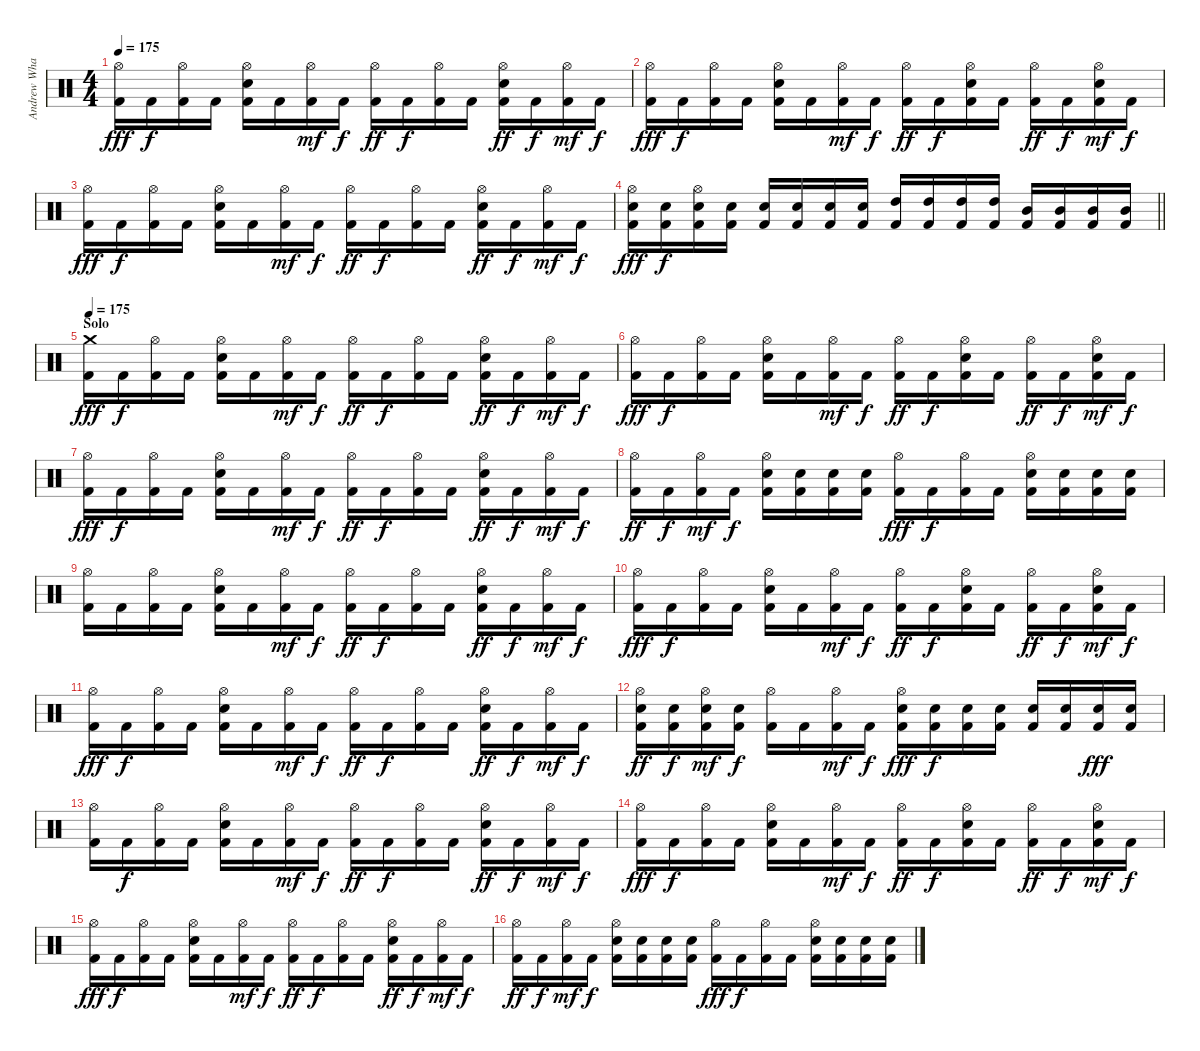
\track ("Andrew Whale" "Andrew Wha") {instrument percussion}
\staff {score}
\articulation defaults
\ts (4 4)
\tempo 175
\clef neutral
\ks c
("Hi-Hat (open)" "Kick (hit) 2").16{dy fff} "Kick (hit) 2".16{dy f} ("Hi-Hat (open)" "Kick (hit) 2").16 "Kick (hit) 2".16 ("Hi-Hat (open)" "Snare (hit) 2" "Kick (hit) 2").16 "Kick (hit) 2".16 ("Hi-Hat (open)" "Kick (hit) 2").16{dy mf} "Kick (hit) 2".16{dy f} ("Hi-Hat (open)" "Kick (hit) 2").16{dy ff} "Kick (hit) 2".16{dy f} ("Hi-Hat (open)" "Kick (hit) 2").16 "Kick (hit) 2".16 ("Hi-Hat (open)" "Snare (hit) 2" "Kick (hit) 2").16{dy ff} "Kick (hit) 2".16{dy f} ("Hi-Hat (open)" "Kick (hit) 2").16{dy mf} "Kick (hit) 2".16{dy f} |
("Hi-Hat (open)" "Kick (hit) 2").16{dy fff} "Kick (hit) 2".16{dy f} ("Hi-Hat (open)" "Kick (hit) 2").16 "Kick (hit) 2".16 ("Hi-Hat (open)" "Snare (hit) 2" "Kick (hit) 2").16 "Kick (hit) 2".16 ("Hi-Hat (open)" "Kick (hit) 2").16{dy mf} "Kick (hit) 2".16{dy f} ("Hi-Hat (open)" "Kick (hit) 2").16{dy ff} "Kick (hit) 2".16{dy f} ("Hi-Hat (open)" "Snare (hit) 2" "Kick (hit) 2").16 "Kick (hit) 2".16 ("Hi-Hat (open)" "Kick (hit) 2").16{dy ff} "Kick (hit) 2".16{dy f} ("Hi-Hat (open)" "Snare (hit) 2" "Kick (hit) 2").16{dy mf} "Kick (hit) 2".16{dy f} |
("Hi-Hat (open)" "Kick (hit) 2").16{dy fff} "Kick (hit) 2".16{dy f} ("Hi-Hat (open)" "Kick (hit) 2").16 "Kick (hit) 2".16 ("Hi-Hat (open)" "Snare (hit) 2" "Kick (hit) 2").16 "Kick (hit) 2".16 ("Hi-Hat (open)" "Kick (hit) 2").16{dy mf} "Kick (hit) 2".16{dy f} ("Hi-Hat (open)" "Kick (hit) 2").16{dy ff} "Kick (hit) 2".16{dy f} ("Hi-Hat (open)" "Kick (hit) 2").16 "Kick (hit) 2".16 ("Hi-Hat (open)" "Snare (hit) 2" "Kick (hit) 2").16{dy ff} "Kick (hit) 2".16{dy f} ("Hi-Hat (open)" "Kick (hit) 2").16{dy mf} "Kick (hit) 2".16{dy f} |
\barLineRight lightlight
("Hi-Hat (open)" "Snare (hit) 2" "Kick (hit) 2").16{dy fff} ("Snare (hit) 2" "Kick (hit) 2").16{dy f} ("Hi-Hat (open)" "Snare (hit) 2" "Kick (hit) 2").16 ("Snare (hit) 2" "Kick (hit) 2").16 ("Snare (hit) 2" "Kick (hit) 2").16 ("Snare (hit) 2" "Kick (hit) 2").16 ("Snare (hit) 2" "Kick (hit) 2").16 ("Snare (hit) 2" "Kick (hit) 2").16 ("High Tom (hit)" "Kick (hit) 2").16 ("High Tom (hit)" "Kick (hit) 2").16 ("High Tom (hit)" "Kick (hit) 2").16 ("High Tom (hit)" "Kick (hit) 2").16 ("Mid Tom (hit)" "Kick (hit) 2").16 ("Mid Tom (hit)" "Kick (hit) 2").16 ("Mid Tom (hit)" "Kick (hit) 2").16 ("Mid Tom (hit)" "Kick (hit) 2").16 |
\section ("" "Solo")
\tempo 175
("Crash medium (hit)" "Kick (hit) 2").16{dy fff} "Kick (hit) 2".16{dy f} ("Hi-Hat (open)" "Kick (hit) 2").16 "Kick (hit) 2".16 ("Hi-Hat (open)" "Snare (hit) 2" "Kick (hit) 2").16 "Kick (hit) 2".16 ("Hi-Hat (open)" "Kick (hit) 2").16{dy mf} "Kick (hit) 2".16{dy f} ("Hi-Hat (open)" "Kick (hit) 2").16{dy ff} "Kick (hit) 2".16{dy f} ("Hi-Hat (open)" "Kick (hit) 2").16 "Kick (hit) 2".16 ("Hi-Hat (open)" "Snare (hit) 2" "Kick (hit) 2").16{dy ff} "Kick (hit) 2".16{dy f} ("Hi-Hat (open)" "Kick (hit) 2").16{dy mf} "Kick (hit) 2".16{dy f} |
("Hi-Hat (open)" "Kick (hit) 2").16{dy fff} "Kick (hit) 2".16{dy f} ("Hi-Hat (open)" "Kick (hit) 2").16 "Kick (hit) 2".16 ("Hi-Hat (open)" "Snare (hit) 2" "Kick (hit) 2").16 "Kick (hit) 2".16 ("Hi-Hat (open)" "Kick (hit) 2").16{dy mf} "Kick (hit) 2".16{dy f} ("Hi-Hat (open)" "Kick (hit) 2").16{dy ff} "Kick (hit) 2".16{dy f} ("Hi-Hat (open)" "Snare (hit) 2" "Kick (hit) 2").16 "Kick (hit) 2".16 ("Hi-Hat (open)" "Kick (hit) 2").16{dy ff} "Kick (hit) 2".16{dy f} ("Hi-Hat (open)" "Snare (hit) 2" "Kick (hit) 2").16{dy mf} "Kick (hit) 2".16{dy f} |
("Hi-Hat (open)" "Kick (hit) 2").16{dy fff} "Kick (hit) 2".16{dy f} ("Hi-Hat (open)" "Kick (hit) 2").16 "Kick (hit) 2".16 ("Hi-Hat (open)" "Snare (hit) 2" "Kick (hit) 2").16 "Kick (hit) 2".16 ("Hi-Hat (open)" "Kick (hit) 2").16{dy mf} "Kick (hit) 2".16{dy f} ("Hi-Hat (open)" "Kick (hit) 2").16{dy ff} "Kick (hit) 2".16{dy f} ("Hi-Hat (open)" "Kick (hit) 2").16 "Kick (hit) 2".16 ("Hi-Hat (open)" "Snare (hit) 2" "Kick (hit) 2").16{dy ff} "Kick (hit) 2".16{dy f} ("Hi-Hat (open)" "Kick (hit) 2").16{dy mf} "Kick (hit) 2".16{dy f} |
("Hi-Hat (open)" "Kick (hit) 2").16{dy ff} "Kick (hit) 2".16{dy f} ("Hi-Hat (open)" "Kick (hit) 2").16{dy mf} "Kick (hit) 2".16{dy f} ("Hi-Hat (open)" "Snare (hit) 2" "Kick (hit) 2").16 ("Snare (hit) 2" "Kick (hit) 2").16 ("Snare (hit) 2" "Kick (hit) 2").16 ("Snare (hit) 2" "Kick (hit) 2").16 ("Hi-Hat (open)" "Kick (hit) 2").16{dy fff} "Kick (hit) 2".16{dy f} ("Hi-Hat (open)" "Kick (hit) 2").16 "Kick (hit) 2".16 ("Hi-Hat (open)" "Snare (hit) 2" "Kick (hit) 2").16 ("Snare (hit) 2" "Kick (hit) 2").16 ("Snare (hit) 2" "Kick (hit) 2").16 ("Snare (hit) 2" "Kick (hit) 2").16 |
("Hi-Hat (open)" "Kick (hit) 2").16 "Kick (hit) 2".16 ("Hi-Hat (open)" "Kick (hit) 2").16 "Kick (hit) 2".16 ("Hi-Hat (open)" "Snare (hit) 2" "Kick (hit) 2").16 "Kick (hit) 2".16 ("Hi-Hat (open)" "Kick (hit) 2").16{dy mf} "Kick (hit) 2".16{dy f} ("Hi-Hat (open)" "Kick (hit) 2").16{dy ff} "Kick (hit) 2".16{dy f} ("Hi-Hat (open)" "Kick (hit) 2").16 "Kick (hit) 2".16 ("Hi-Hat (open)" "Snare (hit) 2" "Kick (hit) 2").16{dy ff} "Kick (hit) 2".16{dy f} ("Hi-Hat (open)" "Kick (hit) 2").16{dy mf} "Kick (hit) 2".16{dy f} |
("Hi-Hat (open)" "Kick (hit) 2").16{dy fff} "Kick (hit) 2".16{dy f} ("Hi-Hat (open)" "Kick (hit) 2").16 "Kick (hit) 2".16 ("Hi-Hat (open)" "Snare (hit) 2" "Kick (hit) 2").16 "Kick (hit) 2".16 ("Hi-Hat (open)" "Kick (hit) 2").16{dy mf} "Kick (hit) 2".16{dy f} ("Hi-Hat (open)" "Kick (hit) 2").16{dy ff} "Kick (hit) 2".16{dy f} ("Hi-Hat (open)" "Snare (hit) 2" "Kick (hit) 2").16 "Kick (hit) 2".16 ("Hi-Hat (open)" "Kick (hit) 2").16{dy ff} "Kick (hit) 2".16{dy f} ("Hi-Hat (open)" "Snare (hit) 2" "Kick (hit) 2").16{dy mf} "Kick (hit) 2".16{dy f} |
("Hi-Hat (open)" "Kick (hit) 2").16{dy fff} "Kick (hit) 2".16{dy f} ("Hi-Hat (open)" "Kick (hit) 2").16 "Kick (hit) 2".16 ("Hi-Hat (open)" "Snare (hit) 2" "Kick (hit) 2").16 "Kick (hit) 2".16 ("Hi-Hat (open)" "Kick (hit) 2").16{dy mf} "Kick (hit) 2".16{dy f} ("Hi-Hat (open)" "Kick (hit) 2").16{dy ff} "Kick (hit) 2".16{dy f} ("Hi-Hat (open)" "Kick (hit) 2").16 "Kick (hit) 2".16 ("Hi-Hat (open)" "Snare (hit) 2" "Kick (hit) 2").16{dy ff} "Kick (hit) 2".16{dy f} ("Hi-Hat (open)" "Kick (hit) 2").16{dy mf} "Kick (hit) 2".16{dy f} |
("Hi-Hat (open)" "Snare (hit) 2" "Kick (hit) 2").16{dy ff} ("Snare (hit) 2" "Kick (hit) 2").16{dy f} ("Hi-Hat (open)" "Snare (hit) 2" "Kick (hit) 2").16{dy mf} ("Snare (hit) 2" "Kick (hit) 2").16{dy f} ("Hi-Hat (open)" "Kick (hit) 2").16 "Kick (hit) 2".16 ("Hi-Hat (open)" "Kick (hit) 2").16{dy mf} "Kick (hit) 2".16{dy f} ("Hi-Hat (open)" "Snare (hit) 2" "Kick (hit) 2").16{dy fff} ("Snare (hit) 2" "Kick (hit) 2").16{dy f} ("Snare (hit) 2" "Kick (hit) 2").16 ("Snare (hit) 2" "Kick (hit) 2").16 ("Snare (hit) 2" "Kick (hit) 2").16 ("Snare (hit) 2" "Kick (hit) 2").16 ("Snare (hit) 2" "Kick (hit) 2").16{dy fff} ("Snare (hit) 2" "Kick (hit) 2").16 |
("Hi-Hat (open)" "Kick (hit) 2").16 "Kick (hit) 2".16{dy f} ("Hi-Hat (open)" "Kick (hit) 2").16 "Kick (hit) 2".16 ("Hi-Hat (open)" "Snare (hit) 2" "Kick (hit) 2").16 "Kick (hit) 2".16 ("Hi-Hat (open)" "Kick (hit) 2").16{dy mf} "Kick (hit) 2".16{dy f} ("Hi-Hat (open)" "Kick (hit) 2").16{dy ff} "Kick (hit) 2".16{dy f} ("Hi-Hat (open)" "Kick (hit) 2").16 "Kick (hit) 2".16 ("Hi-Hat (open)" "Snare (hit) 2" "Kick (hit) 2").16{dy ff} "Kick (hit) 2".16{dy f} ("Hi-Hat (open)" "Kick (hit) 2").16{dy mf} "Kick (hit) 2".16{dy f} |
("Hi-Hat (open)" "Kick (hit) 2").16{dy fff} "Kick (hit) 2".16{dy f} ("Hi-Hat (open)" "Kick (hit) 2").16 "Kick (hit) 2".16 ("Hi-Hat (open)" "Snare (hit) 2" "Kick (hit) 2").16 "Kick (hit) 2".16 ("Hi-Hat (open)" "Kick (hit) 2").16{dy mf} "Kick (hit) 2".16{dy f} ("Hi-Hat (open)" "Kick (hit) 2").16{dy ff} "Kick (hit) 2".16{dy f} ("Hi-Hat (open)" "Snare (hit) 2" "Kick (hit) 2").16 "Kick (hit) 2".16 ("Hi-Hat (open)" "Kick (hit) 2").16{dy ff} "Kick (hit) 2".16{dy f} ("Hi-Hat (open)" "Snare (hit) 2" "Kick (hit) 2").16{dy mf} "Kick (hit) 2".16{dy f} |
("Hi-Hat (open)" "Kick (hit) 2").16{dy fff} "Kick (hit) 2".16{dy f} ("Hi-Hat (open)" "Kick (hit) 2").16 "Kick (hit) 2".16 ("Hi-Hat (open)" "Snare (hit) 2" "Kick (hit) 2").16 "Kick (hit) 2".16 ("Hi-Hat (open)" "Kick (hit) 2").16{dy mf} "Kick (hit) 2".16{dy f} ("Hi-Hat (open)" "Kick (hit) 2").16{dy ff} "Kick (hit) 2".16{dy f} ("Hi-Hat (open)" "Kick (hit) 2").16 "Kick (hit) 2".16 ("Hi-Hat (open)" "Snare (hit) 2" "Kick (hit) 2").16{dy ff} "Kick (hit) 2".16{dy f} ("Hi-Hat (open)" "Kick (hit) 2").16{dy mf} "Kick (hit) 2".16{dy f} |
("Hi-Hat (open)" "Kick (hit) 2").16{dy ff} "Kick (hit) 2".16{dy f} ("Hi-Hat (open)" "Kick (hit) 2").16{dy mf} "Kick (hit) 2".16{dy f} ("Hi-Hat (open)" "Snare (hit) 2" "Kick (hit) 2").16 ("Snare (hit) 2" "Kick (hit) 2").16 ("Snare (hit) 2" "Kick (hit) 2").16 ("Snare (hit) 2" "Kick (hit) 2").16 ("Hi-Hat (open)" "Kick (hit) 2").16{dy fff} "Kick (hit) 2".16{dy f} ("Hi-Hat (open)" "Kick (hit) 2").16 "Kick (hit) 2".16 ("Hi-Hat (open)" "Snare (hit) 2" "Kick (hit) 2").16 ("Snare (hit) 2" "Kick (hit) 2").16 ("Snare (hit) 2" "Kick (hit) 2").16 ("Snare (hit) 2" "Kick (hit) 2").16
